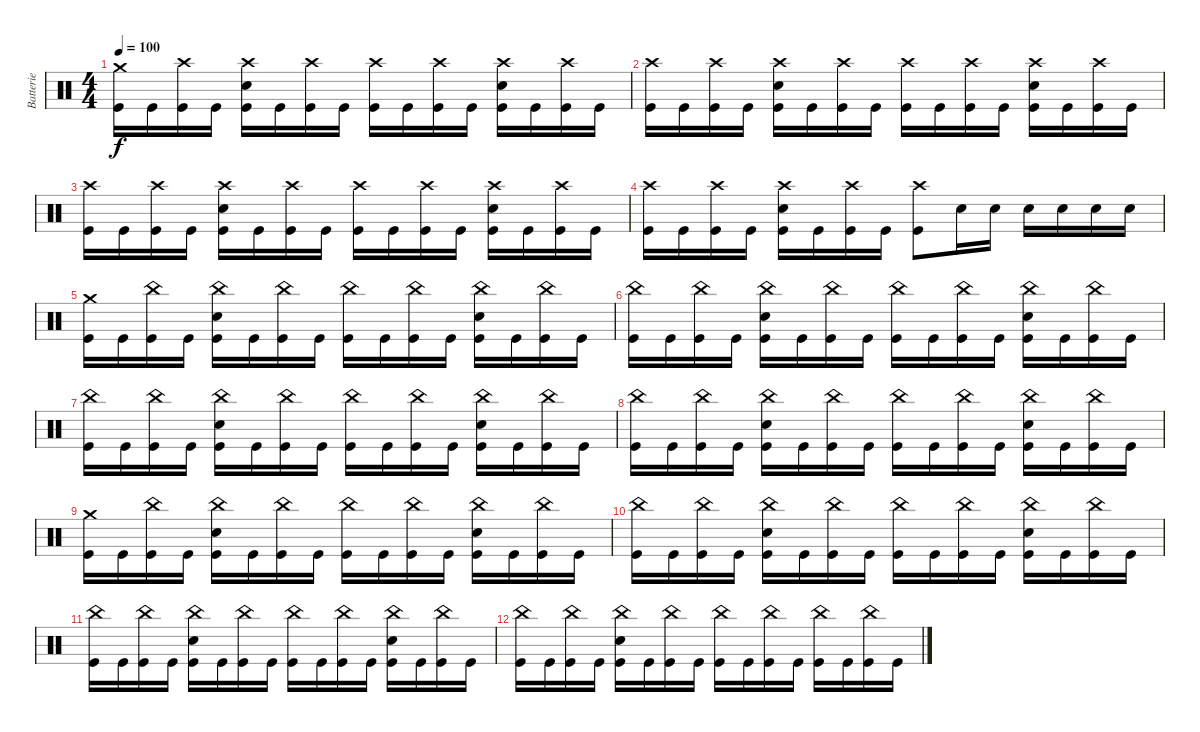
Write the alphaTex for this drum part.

\track ("Batterie" "Batterie") {instrument percussion}
\staff {score}
\articulation defaults
\ts (4 4)
\tempo 100
\clef neutral
\ks c
("Crash medium (hit)" "Kick (hit)").16{dy f} "Kick (hit)".16 ("Crash high (hit)" "Kick (hit)").16 "Kick (hit)".16 ("Crash high (hit)" "Electric Snare (hit)" "Kick (hit)").16 "Kick (hit)".16 ("Crash high (hit)" "Kick (hit)").16 "Kick (hit)".16 ("Crash high (hit)" "Kick (hit)").16 "Kick (hit)".16 ("Crash high (hit)" "Kick (hit)").16 "Kick (hit)".16 ("Crash high (hit)" "Electric Snare (hit)" "Kick (hit)").16 "Kick (hit)".16 ("Crash high (hit)" "Kick (hit)").16 "Kick (hit)".16 |
("Crash high (hit)" "Kick (hit)").16 "Kick (hit)".16 ("Crash high (hit)" "Kick (hit)").16 "Kick (hit)".16 ("Crash high (hit)" "Electric Snare (hit)" "Kick (hit)").16 "Kick (hit)".16 ("Crash high (hit)" "Kick (hit)").16 "Kick (hit)".16 ("Crash high (hit)" "Kick (hit)").16 "Kick (hit)".16 ("Crash high (hit)" "Kick (hit)").16 "Kick (hit)".16 ("Crash high (hit)" "Electric Snare (hit)" "Kick (hit)").16 "Kick (hit)".16 ("Crash high (hit)" "Kick (hit)").16 "Kick (hit)".16 |
("Crash high (hit)" "Kick (hit)").16 "Kick (hit)".16 ("Crash high (hit)" "Kick (hit)").16 "Kick (hit)".16 ("Crash high (hit)" "Electric Snare (hit)" "Kick (hit)").16 "Kick (hit)".16 ("Crash high (hit)" "Kick (hit)").16 "Kick (hit)".16 ("Crash high (hit)" "Kick (hit)").16 "Kick (hit)".16 ("Crash high (hit)" "Kick (hit)").16 "Kick (hit)".16 ("Crash high (hit)" "Electric Snare (hit)" "Kick (hit)").16 "Kick (hit)".16 ("Crash high (hit)" "Kick (hit)").16 "Kick (hit)".16 |
("Crash high (hit)" "Kick (hit)").16 "Kick (hit)".16 ("Crash high (hit)" "Kick (hit)").16 "Kick (hit)".16 ("Crash high (hit)" "Electric Snare (hit)" "Kick (hit)").16 "Kick (hit)".16 ("Crash high (hit)" "Kick (hit)").16 "Kick (hit)".16 ("Crash high (hit)" "Kick (hit)").8 "Electric Snare (hit)".16 "Electric Snare (hit)".16 "Electric Snare (hit)".16 "Electric Snare (hit)".16 "Electric Snare (hit)".16 "Electric Snare (hit)".16 |
("Crash medium (hit)" "Kick (hit)").16{volume 7} "Kick (hit)".16 ("China (hit)" "Kick (hit)").16 "Kick (hit)".16 ("China (hit)" "Electric Snare (hit)" "Kick (hit)").16 "Kick (hit)".16 ("China (hit)" "Kick (hit)").16 "Kick (hit)".16 ("China (hit)" "Kick (hit)").16 "Kick (hit)".16 ("China (hit)" "Kick (hit)").16 "Kick (hit)".16 ("China (hit)" "Electric Snare (hit)" "Kick (hit)").16 "Kick (hit)".16 ("China (hit)" "Kick (hit)").16 "Kick (hit)".16 |
("China (hit)" "Kick (hit)").16 "Kick (hit)".16 ("China (hit)" "Kick (hit)").16 "Kick (hit)".16 ("China (hit)" "Electric Snare (hit)" "Kick (hit)").16 "Kick (hit)".16 ("China (hit)" "Kick (hit)").16 "Kick (hit)".16 ("China (hit)" "Kick (hit)").16 "Kick (hit)".16 ("China (hit)" "Kick (hit)").16 "Kick (hit)".16 ("China (hit)" "Electric Snare (hit)" "Kick (hit)").16 "Kick (hit)".16 ("China (hit)" "Kick (hit)").16 "Kick (hit)".16 |
("China (hit)" "Kick (hit)").16 "Kick (hit)".16 ("China (hit)" "Kick (hit)").16 "Kick (hit)".16 ("China (hit)" "Electric Snare (hit)" "Kick (hit)").16 "Kick (hit)".16 ("China (hit)" "Kick (hit)").16 "Kick (hit)".16 ("China (hit)" "Kick (hit)").16 "Kick (hit)".16 ("China (hit)" "Kick (hit)").16 "Kick (hit)".16 ("China (hit)" "Electric Snare (hit)" "Kick (hit)").16 "Kick (hit)".16 ("China (hit)" "Kick (hit)").16 "Kick (hit)".16 |
("China (hit)" "Kick (hit)").16 "Kick (hit)".16 ("China (hit)" "Kick (hit)").16 "Kick (hit)".16 ("China (hit)" "Electric Snare (hit)" "Kick (hit)").16 "Kick (hit)".16 ("China (hit)" "Kick (hit)").16 "Kick (hit)".16 ("China (hit)" "Kick (hit)").16 "Kick (hit)".16 ("China (hit)" "Kick (hit)").16 "Kick (hit)".16 ("China (hit)" "Electric Snare (hit)" "Kick (hit)").16 "Kick (hit)".16 ("China (hit)" "Kick (hit)").16 "Kick (hit)".16 |
("Crash medium (hit)" "Kick (hit)").16{volume 0} "Kick (hit)".16 ("China (hit)" "Kick (hit)").16 "Kick (hit)".16 ("China (hit)" "Electric Snare (hit)" "Kick (hit)").16 "Kick (hit)".16 ("China (hit)" "Kick (hit)").16 "Kick (hit)".16 ("China (hit)" "Kick (hit)").16 "Kick (hit)".16 ("China (hit)" "Kick (hit)").16 "Kick (hit)".16 ("China (hit)" "Electric Snare (hit)" "Kick (hit)").16 "Kick (hit)".16 ("China (hit)" "Kick (hit)").16 "Kick (hit)".16 |
("China (hit)" "Kick (hit)").16 "Kick (hit)".16 ("China (hit)" "Kick (hit)").16 "Kick (hit)".16 ("China (hit)" "Electric Snare (hit)" "Kick (hit)").16 "Kick (hit)".16 ("China (hit)" "Kick (hit)").16 "Kick (hit)".16 ("China (hit)" "Kick (hit)").16 "Kick (hit)".16 ("China (hit)" "Kick (hit)").16 "Kick (hit)".16 ("China (hit)" "Electric Snare (hit)" "Kick (hit)").16 "Kick (hit)".16 ("China (hit)" "Kick (hit)").16 "Kick (hit)".16 |
("China (hit)" "Kick (hit)").16 "Kick (hit)".16 ("China (hit)" "Kick (hit)").16 "Kick (hit)".16 ("China (hit)" "Electric Snare (hit)" "Kick (hit)").16 "Kick (hit)".16 ("China (hit)" "Kick (hit)").16 "Kick (hit)".16 ("China (hit)" "Kick (hit)").16 "Kick (hit)".16 ("China (hit)" "Kick (hit)").16 "Kick (hit)".16 ("China (hit)" "Electric Snare (hit)" "Kick (hit)").16 "Kick (hit)".16 ("China (hit)" "Kick (hit)").16 "Kick (hit)".16 |
("China (hit)" "Kick (hit)").16 "Kick (hit)".16 ("China (hit)" "Kick (hit)").16 "Kick (hit)".16 ("China (hit)" "Electric Snare (hit)" "Kick (hit)").16 "Kick (hit)".16 ("China (hit)" "Kick (hit)").16 "Kick (hit)".16 ("China (hit)" "Kick (hit)").16 "Kick (hit)".16 ("China (hit)" "Kick (hit)").16 "Kick (hit)".16 ("China (hit)" "Kick (hit)").16 "Kick (hit)".16 ("China (hit)" "Kick (hit)").16 "Kick (hit)".16
